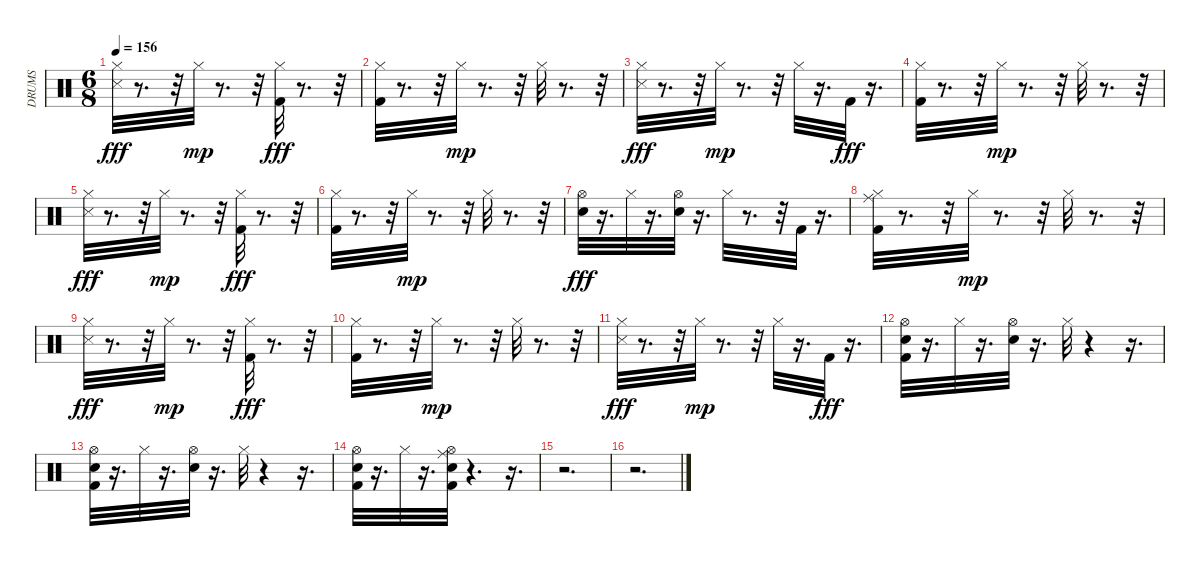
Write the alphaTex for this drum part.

\track ("DRUMS" "DRUMS") {instrument percussion}
\staff {score}
\articulation defaults
\ts (6 8)
\tempo 156
\clef neutral
\ks c
("Hi-Hat (closed)" "Snare (side stick) 3").32{dy fff} r.8{d} r.32 "Hi-Hat (closed)".32{dy mp} r.8{d} r.32 ("Hi-Hat (closed)" "Kick (hit) 2").32{dy fff} r.8{d} r.32 |
("Hi-Hat (closed)" "Kick (hit) 2").32 r.8{d} r.32 "Hi-Hat (closed)".32{dy mp} r.8{d} r.32 "Hi-Hat (closed)".32 r.8{d} r.32 |
("Hi-Hat (closed)" "Snare (side stick) 3").32{dy fff} r.8{d} r.32 "Hi-Hat (closed)".32{dy mp} r.8{d} r.32 "Hi-Hat (closed)".32 r.16{d} "Kick (hit) 2".32{dy fff} r.16{d} |
("Hi-Hat (closed)" "Kick (hit) 2").32 r.8{d} r.32 "Hi-Hat (closed)".32{dy mp} r.8{d} r.32 "Hi-Hat (closed)".32 r.8{d} r.32 |
("Snare (side stick) 3" "Hi-Hat (closed)").32{dy fff} r.8{d} r.32 "Hi-Hat (closed)".32{dy mp} r.8{d} r.32 ("Hi-Hat (closed)" "Kick (hit) 2").32{dy fff} r.8{d} r.32 |
("Hi-Hat (closed)" "Kick (hit) 2").32 r.8{d} r.32 "Hi-Hat (closed)".32{dy mp} r.8{d} r.32 "Hi-Hat (closed)".32 r.8{d} r.32 |
("Hi-Hat (open)" "Snare (hit) 2").32{dy fff} r.16{d} "Hi-Hat (closed)".32 r.16{d} ("Hi-Hat (open)" "Snare (hit) 2").32 r.16{d} "Hi-Hat (closed)".32 r.8{d} r.32 "Kick (hit) 2".32 r.16{d} |
("Ride (middle)" "Hi-Hat (closed)" "Kick (hit) 2").32 r.8{d} r.32 "Hi-Hat (closed)".32{dy mp} r.8{d} r.32 "Hi-Hat (closed)".32 r.8{d} r.32 |
("Hi-Hat (closed)" "Snare (side stick) 3").32{dy fff} r.8{d} r.32 "Hi-Hat (closed)".32{dy mp} r.8{d} r.32 ("Hi-Hat (closed)" "Kick (hit) 2").32{dy fff} r.8{d} r.32 |
("Hi-Hat (closed)" "Kick (hit) 2").32 r.8{d} r.32 "Hi-Hat (closed)".32{dy mp} r.8{d} r.32 "Hi-Hat (closed)".32 r.8{d} r.32 |
("Snare (side stick) 3" "Hi-Hat (closed)").32{dy fff} r.8{d} r.32 "Hi-Hat (closed)".32{dy mp} r.8{d} r.32 "Hi-Hat (closed)".32 r.16{d} "Kick (hit) 2".32{dy fff} r.16{d} |
("Hi-Hat (open)" "Snare (hit) 2" "Kick (hit) 2").32 r.16{d} "Hi-Hat (closed)".32 r.16{d} ("Hi-Hat (open)" "Snare (hit) 2").32 r.16{d} "Hi-Hat (closed)".32 r.4 r.16{d} |
("Hi-Hat (open)" "Snare (hit) 2" "Kick (hit) 2").32 r.16{d} "Hi-Hat (closed)".32 r.16{d} ("Hi-Hat (open)" "Snare (hit) 2").32 r.16{d} "Hi-Hat (closed)".32 r.4 r.16{d} |
("Hi-Hat (open)" "Snare (hit) 2" "Kick (hit) 2").32 r.16{d} "Hi-Hat (closed)".32 r.16{d} ("Kick (hit) 2" "Ride (middle)" "Hi-Hat (open)" "Snare (hit) 2").32 r.4{d} r.16{d} |
r.2{d} |
r.2{d}
